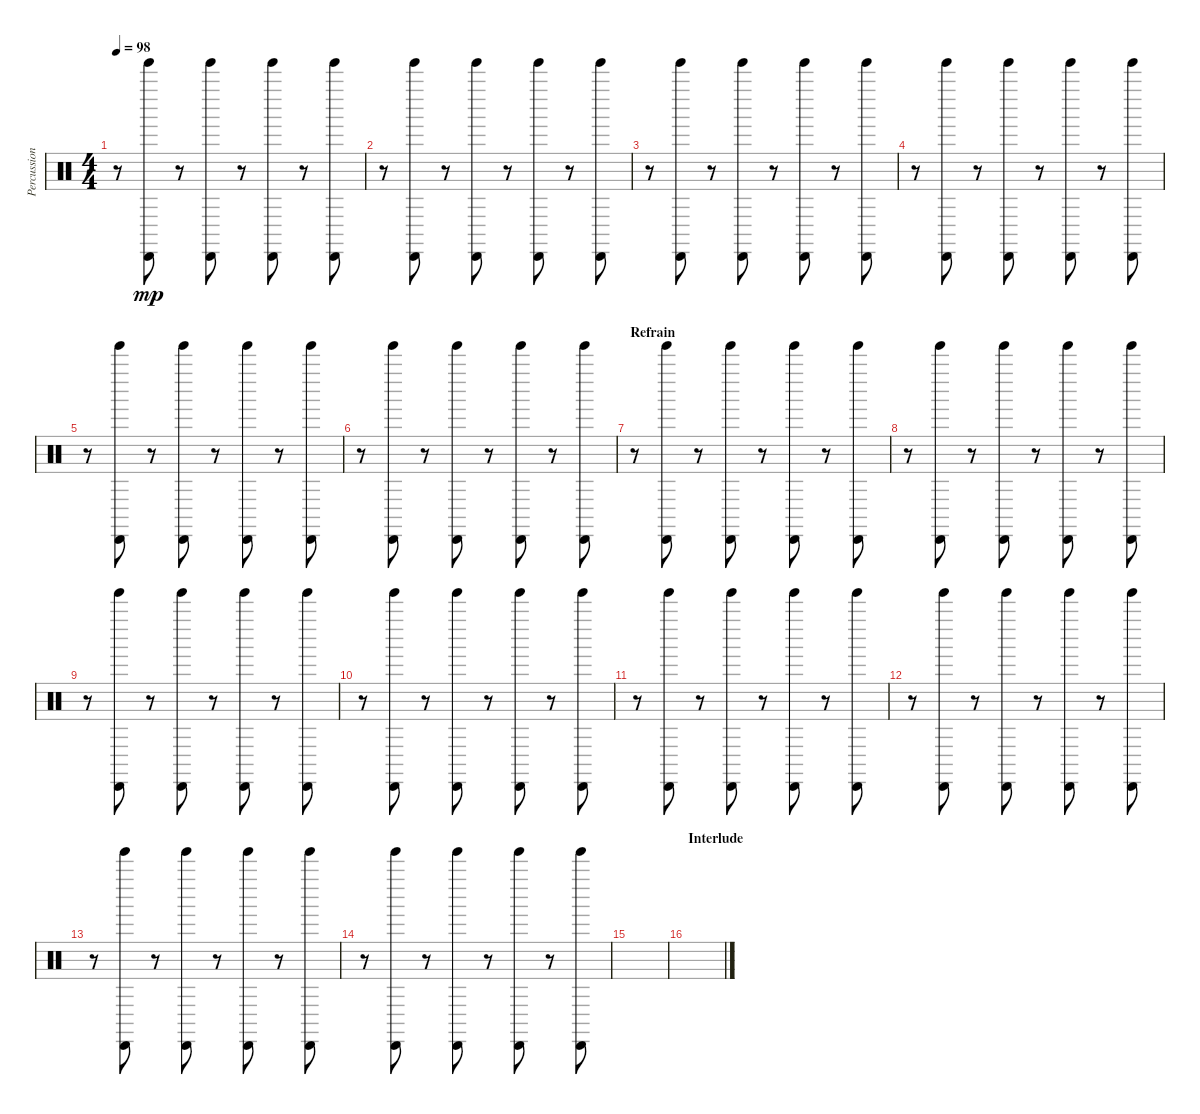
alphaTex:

\track ("Percussion" "Percussion") {instrument percussion}
\staff {score}
\articulation defaults
\ts (4 4)
\tempo 98
\clef neutral
\ks c
r.8{dy mp} ("Tinkle Bell (hit)" "Cabasa (hit)").8 r.8 ("Tinkle Bell (hit)" "Cabasa (hit)").8 r.8 ("Tinkle Bell (hit)" "Cabasa (hit)").8 r.8 ("Tinkle Bell (hit)" "Cabasa (hit)").8 |
r.8 ("Tinkle Bell (hit)" "Cabasa (hit)").8 r.8 ("Tinkle Bell (hit)" "Cabasa (hit)").8 r.8 ("Tinkle Bell (hit)" "Cabasa (hit)").8 r.8 ("Tinkle Bell (hit)" "Cabasa (hit)").8 |
r.8 ("Tinkle Bell (hit)" "Cabasa (hit)").8 r.8 ("Tinkle Bell (hit)" "Cabasa (hit)").8 r.8 ("Tinkle Bell (hit)" "Cabasa (hit)").8 r.8 ("Tinkle Bell (hit)" "Cabasa (hit)").8 |
r.8 ("Tinkle Bell (hit)" "Cabasa (hit)").8 r.8 ("Tinkle Bell (hit)" "Cabasa (hit)").8 r.8 ("Tinkle Bell (hit)" "Cabasa (hit)").8 r.8 ("Tinkle Bell (hit)" "Cabasa (hit)").8 |
r.8 ("Tinkle Bell (hit)" "Cabasa (hit)").8 r.8 ("Tinkle Bell (hit)" "Cabasa (hit)").8 r.8 ("Tinkle Bell (hit)" "Cabasa (hit)").8 r.8 ("Tinkle Bell (hit)" "Cabasa (hit)").8 |
r.8 ("Tinkle Bell (hit)" "Cabasa (hit)").8 r.8 ("Tinkle Bell (hit)" "Cabasa (hit)").8 r.8 ("Tinkle Bell (hit)" "Cabasa (hit)").8 r.8 ("Tinkle Bell (hit)" "Cabasa (hit)").8 |
\section ("" "Refrain")
r.8 ("Tinkle Bell (hit)" "Cabasa (hit)").8 r.8 ("Tinkle Bell (hit)" "Cabasa (hit)").8 r.8 ("Tinkle Bell (hit)" "Cabasa (hit)").8 r.8 ("Tinkle Bell (hit)" "Cabasa (hit)").8 |
r.8 ("Tinkle Bell (hit)" "Cabasa (hit)").8 r.8 ("Tinkle Bell (hit)" "Cabasa (hit)").8 r.8 ("Tinkle Bell (hit)" "Cabasa (hit)").8 r.8 ("Tinkle Bell (hit)" "Cabasa (hit)").8 |
r.8 ("Tinkle Bell (hit)" "Cabasa (hit)").8 r.8 ("Tinkle Bell (hit)" "Cabasa (hit)").8 r.8 ("Tinkle Bell (hit)" "Cabasa (hit)").8 r.8 ("Tinkle Bell (hit)" "Cabasa (hit)").8 |
r.8 ("Tinkle Bell (hit)" "Cabasa (hit)").8 r.8 ("Tinkle Bell (hit)" "Cabasa (hit)").8 r.8 ("Tinkle Bell (hit)" "Cabasa (hit)").8 r.8 ("Tinkle Bell (hit)" "Cabasa (hit)").8 |
r.8 ("Tinkle Bell (hit)" "Cabasa (hit)").8 r.8 ("Tinkle Bell (hit)" "Cabasa (hit)").8 r.8 ("Tinkle Bell (hit)" "Cabasa (hit)").8 r.8 ("Tinkle Bell (hit)" "Cabasa (hit)").8 |
r.8 ("Tinkle Bell (hit)" "Cabasa (hit)").8 r.8 ("Tinkle Bell (hit)" "Cabasa (hit)").8 r.8 ("Tinkle Bell (hit)" "Cabasa (hit)").8 r.8 ("Tinkle Bell (hit)" "Cabasa (hit)").8 |
r.8 ("Tinkle Bell (hit)" "Cabasa (hit)").8 r.8 ("Tinkle Bell (hit)" "Cabasa (hit)").8 r.8 ("Tinkle Bell (hit)" "Cabasa (hit)").8 r.8 ("Tinkle Bell (hit)" "Cabasa (hit)").8 |
r.8 ("Tinkle Bell (hit)" "Cabasa (hit)").8 r.8 ("Tinkle Bell (hit)" "Cabasa (hit)").8 r.8 ("Tinkle Bell (hit)" "Cabasa (hit)").8 r.8 ("Tinkle Bell (hit)" "Cabasa (hit)").8 |
|
\section ("" "Interlude")
